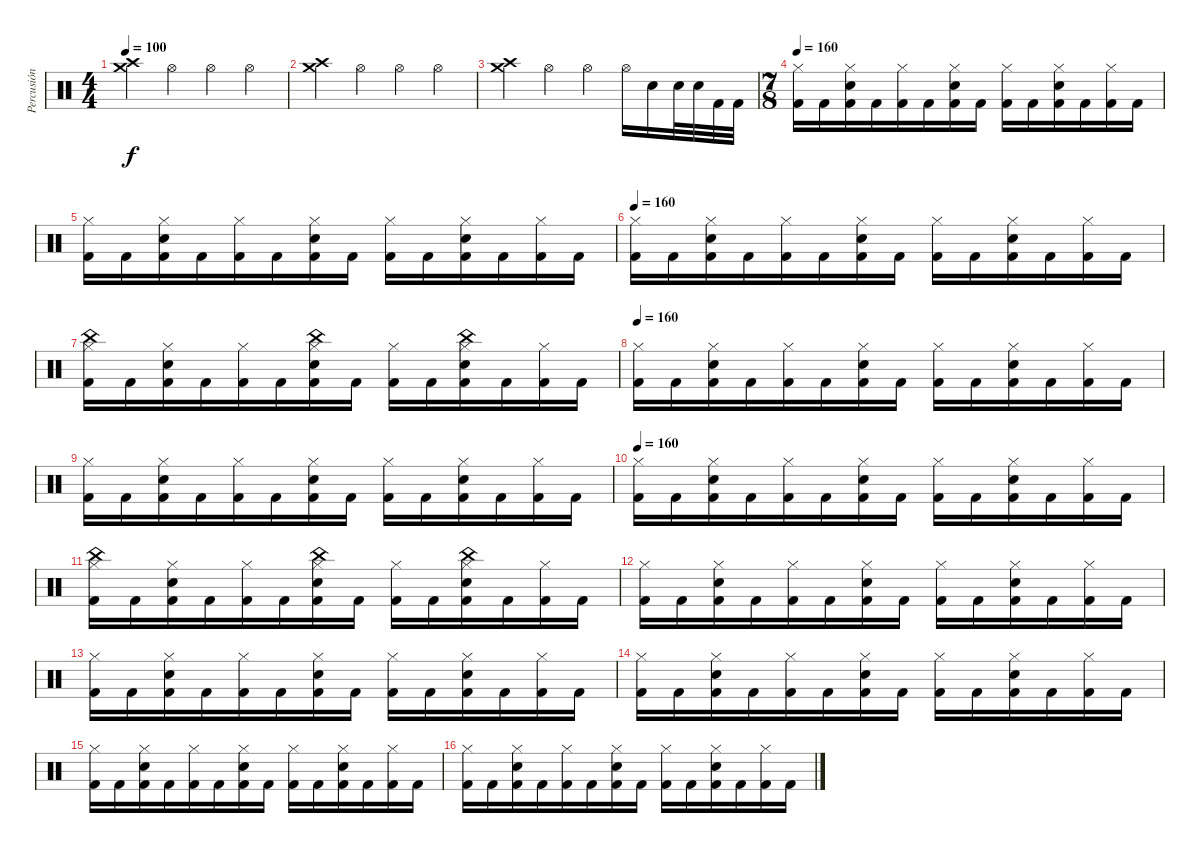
\track ("Percusión" "Percusión") {instrument percussion}
\staff {score}
\articulation defaults
\ts (4 4)
\tempo 100
\clef neutral
\ks c
("Crash high (hit)" "Crash medium (hit)").4{dy f} "Hi-Hat (open)".4 "Hi-Hat (open)".4 "Hi-Hat (open)".4 |
("Crash high (hit)" "Crash medium (hit)").4 "Hi-Hat (open)".4 "Hi-Hat (open)".4 "Hi-Hat (open)".4 |
("Crash high (hit)" "Crash medium (hit)").4 "Hi-Hat (open)".4 "Hi-Hat (open)".4 "Hi-Hat (open)".16 "Snare (hit) 2".16 "Snare (hit) 2".32 "Snare (hit) 2".32 "Kick (hit) 2".32 "Kick (hit) 2".32 |
\ts (7 8)
\tempo 100
\tempo 160
("Kick (hit) 2" "Hi-Hat (closed)").16 "Kick (hit) 2".16 ("Kick (hit) 2" "Snare (hit) 2" "Hi-Hat (closed)").16 "Kick (hit) 2".16 ("Kick (hit) 2" "Hi-Hat (closed)").16 "Kick (hit) 2".16 ("Kick (hit) 2" "Snare (hit) 2" "Hi-Hat (closed)").16 "Kick (hit) 2".16 ("Kick (hit) 2" "Hi-Hat (closed)").16 "Kick (hit) 2".16 ("Kick (hit) 2" "Snare (hit) 2" "Hi-Hat (closed)").16 "Kick (hit) 2".16 ("Kick (hit) 2" "Hi-Hat (closed)").16 "Kick (hit) 2".16 |
("Kick (hit) 2" "Hi-Hat (closed)").16 "Kick (hit) 2".16 ("Kick (hit) 2" "Snare (hit) 2" "Hi-Hat (closed)").16 "Kick (hit) 2".16 ("Kick (hit) 2" "Hi-Hat (closed)").16 "Kick (hit) 2".16 ("Kick (hit) 2" "Snare (hit) 2" "Hi-Hat (closed)").16 "Kick (hit) 2".16 ("Kick (hit) 2" "Hi-Hat (closed)").16 "Kick (hit) 2".16 ("Kick (hit) 2" "Snare (hit) 2" "Hi-Hat (closed)").16 "Kick (hit) 2".16 ("Kick (hit) 2" "Hi-Hat (closed)").16 "Kick (hit) 2".16 |
\tempo 160
("Kick (hit) 2" "Hi-Hat (closed)").16 "Kick (hit) 2".16 ("Kick (hit) 2" "Snare (hit) 2" "Hi-Hat (closed)").16 "Kick (hit) 2".16 ("Kick (hit) 2" "Hi-Hat (closed)").16 "Kick (hit) 2".16 ("Kick (hit) 2" "Snare (hit) 2" "Hi-Hat (closed)").16 "Kick (hit) 2".16 ("Kick (hit) 2" "Hi-Hat (closed)").16 "Kick (hit) 2".16 ("Kick (hit) 2" "Snare (hit) 2" "Hi-Hat (closed)").16 "Kick (hit) 2".16 ("Kick (hit) 2" "Hi-Hat (closed)").16 "Kick (hit) 2".16 |
("Kick (hit) 2" "Hi-Hat (closed)" "China (hit)").16 "Kick (hit) 2".16 ("Kick (hit) 2" "Snare (hit) 2" "Hi-Hat (closed)").16 "Kick (hit) 2".16 ("Kick (hit) 2" "Hi-Hat (closed)").16 "Kick (hit) 2".16 ("Kick (hit) 2" "Snare (hit) 2" "Hi-Hat (closed)" "China (hit)").16 "Kick (hit) 2".16 ("Kick (hit) 2" "Hi-Hat (closed)").16 "Kick (hit) 2".16 ("Kick (hit) 2" "Snare (hit) 2" "Hi-Hat (closed)" "China (hit)").16 "Kick (hit) 2".16 ("Kick (hit) 2" "Hi-Hat (closed)").16 "Kick (hit) 2".16 |
\tempo 160
("Kick (hit) 2" "Hi-Hat (closed)").16 "Kick (hit) 2".16 ("Kick (hit) 2" "Snare (hit) 2" "Hi-Hat (closed)").16 "Kick (hit) 2".16 ("Kick (hit) 2" "Hi-Hat (closed)").16 "Kick (hit) 2".16 ("Kick (hit) 2" "Snare (hit) 2" "Hi-Hat (closed)").16 "Kick (hit) 2".16 ("Kick (hit) 2" "Hi-Hat (closed)").16 "Kick (hit) 2".16 ("Kick (hit) 2" "Snare (hit) 2" "Hi-Hat (closed)").16 "Kick (hit) 2".16 ("Kick (hit) 2" "Hi-Hat (closed)").16 "Kick (hit) 2".16 |
("Kick (hit) 2" "Hi-Hat (closed)").16 "Kick (hit) 2".16 ("Kick (hit) 2" "Snare (hit) 2" "Hi-Hat (closed)").16 "Kick (hit) 2".16 ("Kick (hit) 2" "Hi-Hat (closed)").16 "Kick (hit) 2".16 ("Kick (hit) 2" "Snare (hit) 2" "Hi-Hat (closed)").16 "Kick (hit) 2".16 ("Kick (hit) 2" "Hi-Hat (closed)").16 "Kick (hit) 2".16 ("Kick (hit) 2" "Snare (hit) 2" "Hi-Hat (closed)").16 "Kick (hit) 2".16 ("Kick (hit) 2" "Hi-Hat (closed)").16 "Kick (hit) 2".16 |
\tempo 160
("Kick (hit) 2" "Hi-Hat (closed)").16 "Kick (hit) 2".16 ("Kick (hit) 2" "Snare (hit) 2" "Hi-Hat (closed)").16 "Kick (hit) 2".16 ("Kick (hit) 2" "Hi-Hat (closed)").16 "Kick (hit) 2".16 ("Kick (hit) 2" "Snare (hit) 2" "Hi-Hat (closed)").16 "Kick (hit) 2".16 ("Kick (hit) 2" "Hi-Hat (closed)").16 "Kick (hit) 2".16 ("Kick (hit) 2" "Snare (hit) 2" "Hi-Hat (closed)").16 "Kick (hit) 2".16 ("Kick (hit) 2" "Hi-Hat (closed)").16 "Kick (hit) 2".16 |
("Kick (hit) 2" "Hi-Hat (closed)" "China (hit)").16 "Kick (hit) 2".16 ("Kick (hit) 2" "Snare (hit) 2" "Hi-Hat (closed)").16 "Kick (hit) 2".16 ("Kick (hit) 2" "Hi-Hat (closed)").16 "Kick (hit) 2".16 ("Kick (hit) 2" "Snare (hit) 2" "Hi-Hat (closed)" "China (hit)").16 "Kick (hit) 2".16 ("Kick (hit) 2" "Hi-Hat (closed)").16 "Kick (hit) 2".16 ("Kick (hit) 2" "Snare (hit) 2" "Hi-Hat (closed)" "China (hit)").16 "Kick (hit) 2".16 ("Kick (hit) 2" "Hi-Hat (closed)").16 "Kick (hit) 2".16 |
("Kick (hit) 2" "Hi-Hat (closed)").16 "Kick (hit) 2".16 ("Kick (hit) 2" "Snare (hit) 2" "Hi-Hat (closed)").16 "Kick (hit) 2".16 ("Kick (hit) 2" "Hi-Hat (closed)").16 "Kick (hit) 2".16 ("Kick (hit) 2" "Snare (hit) 2" "Hi-Hat (closed)").16 "Kick (hit) 2".16 ("Kick (hit) 2" "Hi-Hat (closed)").16 "Kick (hit) 2".16 ("Kick (hit) 2" "Snare (hit) 2" "Hi-Hat (closed)").16 "Kick (hit) 2".16 ("Kick (hit) 2" "Hi-Hat (closed)").16 "Kick (hit) 2".16 |
("Kick (hit) 2" "Hi-Hat (closed)").16 "Kick (hit) 2".16 ("Kick (hit) 2" "Snare (hit) 2" "Hi-Hat (closed)").16 "Kick (hit) 2".16 ("Kick (hit) 2" "Hi-Hat (closed)").16 "Kick (hit) 2".16 ("Kick (hit) 2" "Snare (hit) 2" "Hi-Hat (closed)").16 "Kick (hit) 2".16 ("Kick (hit) 2" "Hi-Hat (closed)").16 "Kick (hit) 2".16 ("Kick (hit) 2" "Snare (hit) 2" "Hi-Hat (closed)").16 "Kick (hit) 2".16 ("Kick (hit) 2" "Hi-Hat (closed)").16 "Kick (hit) 2".16 |
("Kick (hit) 2" "Hi-Hat (closed)").16 "Kick (hit) 2".16 ("Kick (hit) 2" "Snare (hit) 2" "Hi-Hat (closed)").16 "Kick (hit) 2".16 ("Kick (hit) 2" "Hi-Hat (closed)").16 "Kick (hit) 2".16 ("Kick (hit) 2" "Snare (hit) 2" "Hi-Hat (closed)").16 "Kick (hit) 2".16 ("Kick (hit) 2" "Hi-Hat (closed)").16 "Kick (hit) 2".16 ("Kick (hit) 2" "Snare (hit) 2" "Hi-Hat (closed)").16 "Kick (hit) 2".16 ("Kick (hit) 2" "Hi-Hat (closed)").16 "Kick (hit) 2".16 |
("Kick (hit) 2" "Hi-Hat (closed)").16 "Kick (hit) 2".16 ("Kick (hit) 2" "Snare (hit) 2" "Hi-Hat (closed)").16 "Kick (hit) 2".16 ("Kick (hit) 2" "Hi-Hat (closed)").16 "Kick (hit) 2".16 ("Kick (hit) 2" "Snare (hit) 2" "Hi-Hat (closed)").16 "Kick (hit) 2".16 ("Kick (hit) 2" "Hi-Hat (closed)").16 "Kick (hit) 2".16 ("Kick (hit) 2" "Snare (hit) 2" "Hi-Hat (closed)").16 "Kick (hit) 2".16 ("Kick (hit) 2" "Hi-Hat (closed)").16 "Kick (hit) 2".16 |
("Kick (hit) 2" "Hi-Hat (closed)").16 "Kick (hit) 2".16 ("Kick (hit) 2" "Snare (hit) 2" "Hi-Hat (closed)").16 "Kick (hit) 2".16 ("Kick (hit) 2" "Hi-Hat (closed)").16 "Kick (hit) 2".16 ("Kick (hit) 2" "Snare (hit) 2" "Hi-Hat (closed)").16 "Kick (hit) 2".16 ("Kick (hit) 2" "Hi-Hat (closed)").16 "Kick (hit) 2".16 ("Kick (hit) 2" "Snare (hit) 2" "Hi-Hat (closed)").16 "Kick (hit) 2".16 ("Kick (hit) 2" "Hi-Hat (closed)").16 "Kick (hit) 2".16
